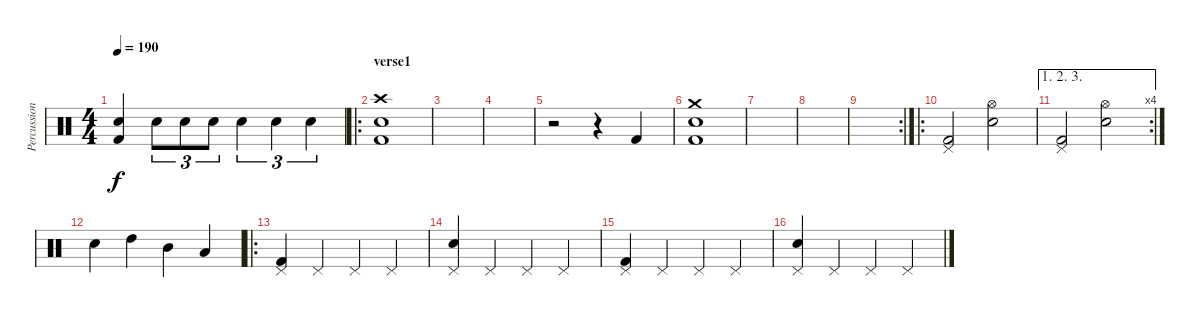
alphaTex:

\track ("Percussions" "Percussion") {instrument percussion}
\staff {score}
\articulation defaults
\ts (4 4)
\tempo 190
\clef neutral
\ks c
("Electric Snare (hit)" "Kick (hit) 2").4{dy f} "Electric Snare (hit)".8{tu (3 2)} "Electric Snare (hit)".8{tu (3 2)} "Electric Snare (hit)".8{tu (3 2)} "Electric Snare (hit)".4{tu (3 2)} "Electric Snare (hit)".4{tu (3 2)} "Electric Snare (hit)".4{tu (3 2)} |
\ro
\section ("" "verse1")
("Crash high (hit)" "Electric Snare (hit)" "Kick (hit) 2").1 |
|
|
r.2 r.4 "Kick (hit) 2".4 |
("Crash medium (hit)" "Electric Snare (hit)" "Kick (hit) 2").1 |
|
|
\rc 2
|
\ro
("Pedal Hi-Hat (hit)" "Kick (hit) 2").2 ("Hi-Hat (open)" "Electric Snare (hit)").2 |
\ae (1 2 3)
\rc 4
("Pedal Hi-Hat (hit)" "Kick (hit) 2").2 ("Hi-Hat (open)" "Electric Snare (hit)").2 |
"Electric Snare (hit)".4 "High Tom (hit)".4 "Mid Tom (hit)".4 "Low Tom (hit)".4 |
\ro
("Pedal Hi-Hat (hit)" "Kick (hit) 2").4 "Pedal Hi-Hat (hit)".4 "Pedal Hi-Hat (hit)".4 "Pedal Hi-Hat (hit)".4 |
("Pedal Hi-Hat (hit)" "Electric Snare (hit)").4 "Pedal Hi-Hat (hit)".4 "Pedal Hi-Hat (hit)".4 "Pedal Hi-Hat (hit)".4 |
("Pedal Hi-Hat (hit)" "Kick (hit) 2").4 "Pedal Hi-Hat (hit)".4 "Pedal Hi-Hat (hit)".4 "Pedal Hi-Hat (hit)".4 |
("Pedal Hi-Hat (hit)" "Electric Snare (hit)").4 "Pedal Hi-Hat (hit)".4 "Pedal Hi-Hat (hit)".4 "Pedal Hi-Hat (hit)".4
